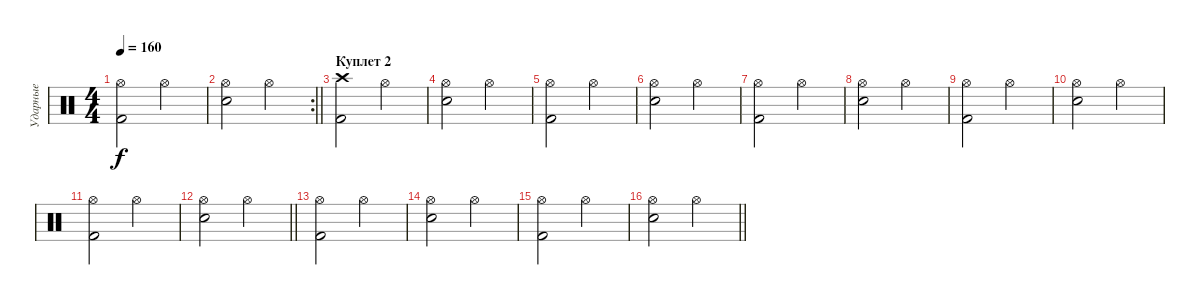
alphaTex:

\track ("Ударные" "Ударные") {instrument percussion}
\staff {score}
\articulation defaults
\ts (4 4)
\tempo 160
\clef neutral
\ks c
("Hi-Hat (open)" "Kick (hit) 2").2{dy f} "Hi-Hat (open)".2 |
\rc 2
\barLineRight lightlight
("Hi-Hat (open)" "Snare (hit) 2").2 "Hi-Hat (open)".2 |
\section ("" "Куплет 2")
("Crash high (hit)" "Kick (hit) 2").2 "Hi-Hat (open)".2 |
("Hi-Hat (open)" "Snare (hit) 2").2 "Hi-Hat (open)".2 |
("Hi-Hat (open)" "Kick (hit) 2").2 "Hi-Hat (open)".2 |
("Hi-Hat (open)" "Snare (hit) 2").2 "Hi-Hat (open)".2 |
("Hi-Hat (open)" "Kick (hit) 2").2 "Hi-Hat (open)".2 |
("Hi-Hat (open)" "Snare (hit) 2").2 "Hi-Hat (open)".2 |
("Hi-Hat (open)" "Kick (hit) 2").2 "Hi-Hat (open)".2 |
("Hi-Hat (open)" "Snare (hit) 2").2 "Hi-Hat (open)".2 |
("Hi-Hat (open)" "Kick (hit) 2").2 "Hi-Hat (open)".2 |
\barLineRight lightlight
("Hi-Hat (open)" "Snare (hit) 2").2 "Hi-Hat (open)".2 |
("Hi-Hat (open)" "Kick (hit) 2").2 "Hi-Hat (open)".2 |
("Hi-Hat (open)" "Snare (hit) 2").2 "Hi-Hat (open)".2 |
("Hi-Hat (open)" "Kick (hit) 2").2 "Hi-Hat (open)".2 |
\barLineRight lightlight
("Hi-Hat (open)" "Snare (hit) 2").2 "Hi-Hat (open)".2
